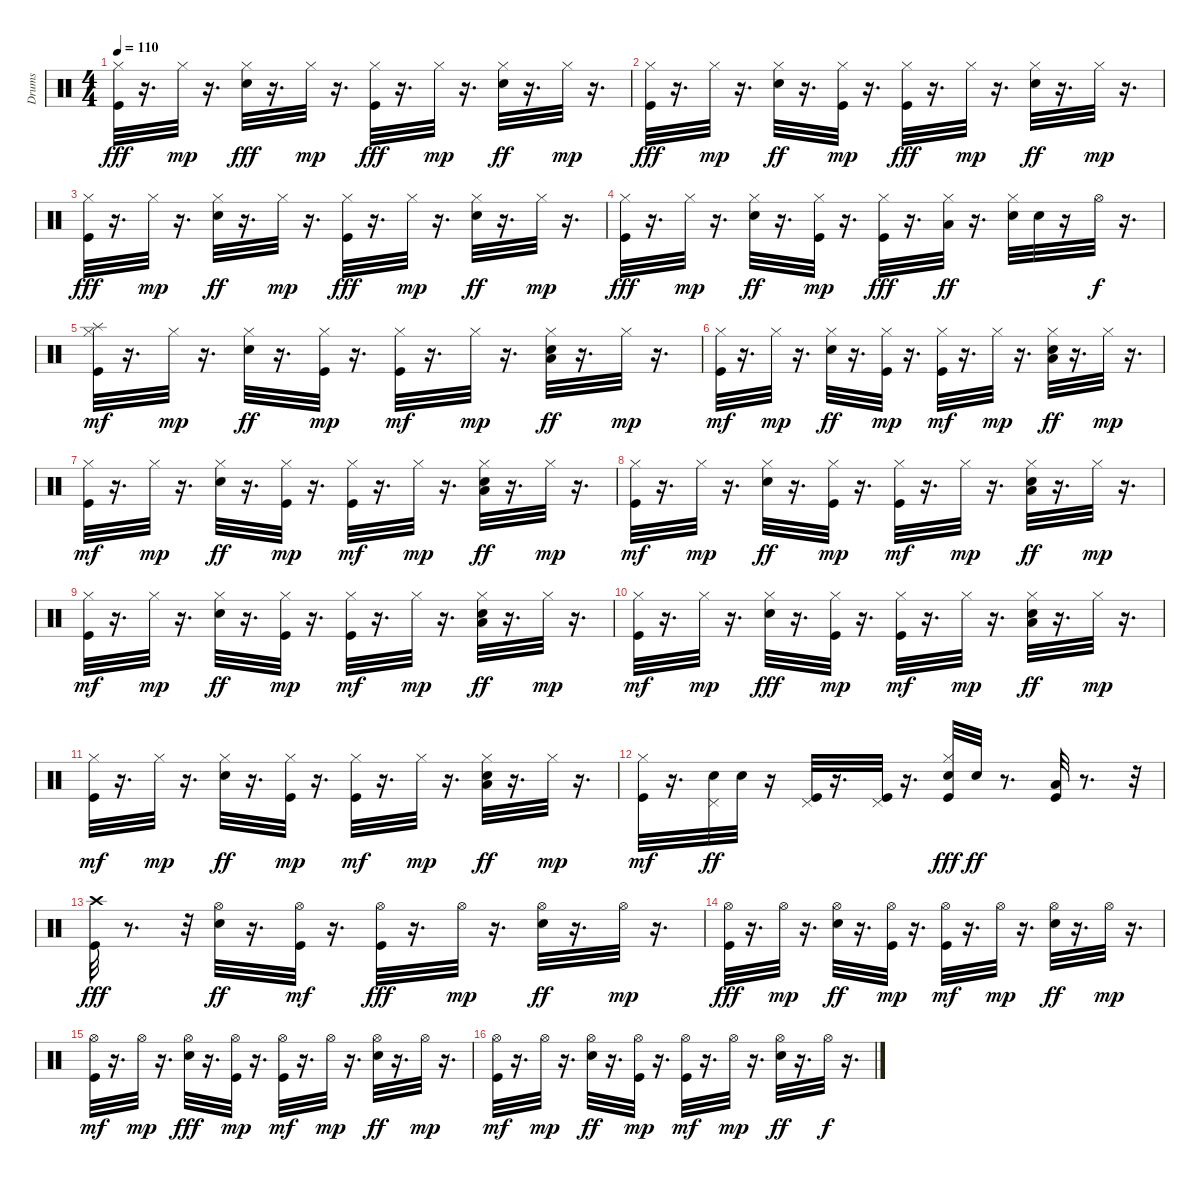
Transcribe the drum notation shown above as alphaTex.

\track ("Drums" "Drums") {instrument percussion}
\staff {score}
\articulation defaults
\ts (4 4)
\tempo 110
\clef neutral
\ks c
("Kick (hit)" "Hi-Hat (closed)").32{dy fff} r.16{d} "Hi-Hat (closed)".32{dy mp} r.16{d} ("Electric Snare (hit)" "Hi-Hat (closed)").32{dy fff} r.16{d} "Hi-Hat (closed)".32{dy mp} r.16{d} ("Kick (hit)" "Hi-Hat (closed)").32{dy fff} r.16{d} "Hi-Hat (closed)".32{dy mp} r.16{d} ("Electric Snare (hit)" "Hi-Hat (closed)").32{dy ff} r.16{d} "Hi-Hat (closed)".32{dy mp} r.16{d} |
("Kick (hit)" "Hi-Hat (closed)").32{dy fff} r.16{d} "Hi-Hat (closed)".32{dy mp} r.16{d} ("Electric Snare (hit)" "Hi-Hat (closed)").32{dy ff} r.16{d} ("Kick (hit)" "Hi-Hat (closed)").32{dy mp} r.16{d} ("Kick (hit)" "Hi-Hat (closed)").32{dy fff} r.16{d} "Hi-Hat (closed)".32{dy mp} r.16{d} ("Electric Snare (hit)" "Hi-Hat (closed)").32{dy ff} r.16{d} "Hi-Hat (closed)".32{dy mp} r.16{d} |
("Kick (hit)" "Hi-Hat (closed)").32{dy fff} r.16{d} "Hi-Hat (closed)".32{dy mp} r.16{d} ("Electric Snare (hit)" "Hi-Hat (closed)").32{dy ff} r.16{d} "Hi-Hat (closed)".32{dy mp} r.16{d} ("Kick (hit)" "Hi-Hat (closed)").32{dy fff} r.16{d} "Hi-Hat (closed)".32{dy mp} r.16{d} ("Electric Snare (hit)" "Hi-Hat (closed)").32{dy ff} r.16{d} "Hi-Hat (closed)".32{dy mp} r.16{d} |
("Kick (hit)" "Hi-Hat (closed)").32{dy fff} r.16{d} "Hi-Hat (closed)".32{dy mp} r.16{d} ("Electric Snare (hit)" "Hi-Hat (closed)").32{dy ff} r.16{d} ("Kick (hit)" "Hi-Hat (closed)").32{dy mp} r.16{d} ("Kick (hit)" "Hi-Hat (closed)").32{dy fff} r.16{d} ("Hi-Hat (closed)" "Low Tom (hit)").32{dy ff} r.16{d} ("Electric Snare (hit)" "Hi-Hat (closed)").32 "Electric Snare (hit)".32 r.16 "Hi-Hat (open)".32{dy f} r.16{d} |
("Kick (hit)" "Hi-Hat (closed)" "Splash (hit)").32{dy mf} r.16{d} "Hi-Hat (closed)".32{dy mp} r.16{d} ("Electric Snare (hit)" "Hi-Hat (closed)").32{dy ff} r.16{d} ("Kick (hit)" "Hi-Hat (closed)").32{dy mp} r.16{d} ("Kick (hit)" "Hi-Hat (closed)").32{dy mf} r.16{d} "Hi-Hat (closed)".32{dy mp} r.16{d} ("Low Floor Tom (hit)" "Electric Snare (hit)" "Hi-Hat (closed)").32{dy ff} r.16{d} "Hi-Hat (closed)".32{dy mp} r.16{d} |
("Kick (hit)" "Hi-Hat (closed)").32{dy mf} r.16{d} "Hi-Hat (closed)".32{dy mp} r.16{d} ("Electric Snare (hit)" "Hi-Hat (closed)").32{dy ff} r.16{d} ("Kick (hit)" "Hi-Hat (closed)").32{dy mp} r.16{d} ("Kick (hit)" "Hi-Hat (closed)").32{dy mf} r.16{d} "Hi-Hat (closed)".32{dy mp} r.16{d} ("Electric Snare (hit)" "Hi-Hat (closed)" "Low Floor Tom (hit)").32{dy ff} r.16{d} "Hi-Hat (closed)".32{dy mp} r.16{d} |
("Kick (hit)" "Hi-Hat (closed)").32{dy mf} r.16{d} "Hi-Hat (closed)".32{dy mp} r.16{d} ("Electric Snare (hit)" "Hi-Hat (closed)").32{dy ff} r.16{d} ("Kick (hit)" "Hi-Hat (closed)").32{dy mp} r.16{d} ("Kick (hit)" "Hi-Hat (closed)").32{dy mf} r.16{d} "Hi-Hat (closed)".32{dy mp} r.16{d} ("Low Floor Tom (hit)" "Electric Snare (hit)" "Hi-Hat (closed)").32{dy ff} r.16{d} "Hi-Hat (closed)".32{dy mp} r.16{d} |
("Kick (hit)" "Hi-Hat (closed)").32{dy mf} r.16{d} "Hi-Hat (closed)".32{dy mp} r.16{d} ("Electric Snare (hit)" "Hi-Hat (closed)").32{dy ff} r.16{d} ("Kick (hit)" "Hi-Hat (closed)").32{dy mp} r.16{d} ("Kick (hit)" "Hi-Hat (closed)").32{dy mf} r.16{d} "Hi-Hat (closed)".32{dy mp} r.16{d} ("Electric Snare (hit)" "Hi-Hat (closed)" "Low Floor Tom (hit)").32{dy ff} r.16{d} "Hi-Hat (closed)".32{dy mp} r.16{d} |
("Kick (hit)" "Hi-Hat (closed)").32{dy mf} r.16{d} "Hi-Hat (closed)".32{dy mp} r.16{d} ("Electric Snare (hit)" "Hi-Hat (closed)").32{dy ff} r.16{d} ("Kick (hit)" "Hi-Hat (closed)").32{dy mp} r.16{d} ("Kick (hit)" "Hi-Hat (closed)").32{dy mf} r.16{d} "Hi-Hat (closed)".32{dy mp} r.16{d} ("Electric Snare (hit)" "Hi-Hat (closed)" "Low Floor Tom (hit)").32{dy ff} r.16{d} "Hi-Hat (closed)".32{dy mp} r.16{d} |
("Kick (hit)" "Hi-Hat (closed)").32{dy mf} r.16{d} "Hi-Hat (closed)".32{dy mp} r.16{d} ("Electric Snare (hit)" "Hi-Hat (closed)").32{dy fff} r.16{d} ("Kick (hit)" "Hi-Hat (closed)").32{dy mp} r.16{d} ("Kick (hit)" "Hi-Hat (closed)").32{dy mf} r.16{d} "Hi-Hat (closed)".32{dy mp} r.16{d} ("Electric Snare (hit)" "Hi-Hat (closed)" "Low Floor Tom (hit)").32{dy ff} r.16{d} "Hi-Hat (closed)".32{dy mp} r.16{d} |
("Kick (hit)" "Hi-Hat (closed)").32{dy mf} r.16{d} "Hi-Hat (closed)".32{dy mp} r.16{d} ("Electric Snare (hit)" "Hi-Hat (closed)").32{dy ff} r.16{d} ("Kick (hit)" "Hi-Hat (closed)").32{dy mp} r.16{d} ("Kick (hit)" "Hi-Hat (closed)").32{dy mf} r.16{d} "Hi-Hat (closed)".32{dy mp} r.16{d} ("Electric Snare (hit)" "Hi-Hat (closed)" "Low Floor Tom (hit)").32{dy ff} r.16{d} "Hi-Hat (closed)".32{dy mp} r.16{d} |
("Kick (hit)" "Hi-Hat (closed)").32{dy mf} r.16{d} ("Pedal Hi-Hat (hit)" "Electric Snare (hit)").32{dy ff} "Electric Snare (hit)".32 r.16 ("Pedal Hi-Hat (hit)" "Kick (hit)").32 r.16{d} ("Kick (hit)" "Pedal Hi-Hat (hit)").32 r.16{d} ("Kick (hit)" "Hi-Hat (closed)" "Electric Snare (hit)").32{dy fff} "Electric Snare (hit)".32{dy ff} r.8{d} ("Low Floor Tom (hit)" "Kick (hit)").32 r.8{d} r.32 |
("Kick (hit)" "Crash high (hit)").32{dy fff} r.8{d} r.32 ("Electric Snare (hit)" "Hi-Hat (open)").32{dy ff} r.16{d} ("Kick (hit)" "Hi-Hat (open)").32{dy mf} r.16{d} ("Kick (hit)" "Hi-Hat (open)").32{dy fff} r.16{d} "Hi-Hat (open)".32{dy mp} r.16{d} ("Electric Snare (hit)" "Hi-Hat (open)").32{dy ff} r.16{d} "Hi-Hat (open)".32{dy mp} r.16{d} |
("Kick (hit)" "Hi-Hat (open)").32{dy fff} r.16{d} "Hi-Hat (open)".32{dy mp} r.16{d} ("Electric Snare (hit)" "Hi-Hat (open)").32{dy ff} r.16{d} ("Kick (hit)" "Hi-Hat (open)").32{dy mp} r.16{d} ("Kick (hit)" "Hi-Hat (open)").32{dy mf} r.16{d} "Hi-Hat (open)".32{dy mp} r.16{d} ("Electric Snare (hit)" "Hi-Hat (open)").32{dy ff} r.16{d} "Hi-Hat (open)".32{dy mp} r.16{d} |
("Kick (hit)" "Hi-Hat (open)").32{dy mf} r.16{d} "Hi-Hat (open)".32{dy mp} r.16{d} ("Electric Snare (hit)" "Hi-Hat (open)").32{dy fff} r.16{d} ("Kick (hit)" "Hi-Hat (open)").32{dy mp} r.16{d} ("Kick (hit)" "Hi-Hat (open)").32{dy mf} r.16{d} "Hi-Hat (open)".32{dy mp} r.16{d} ("Electric Snare (hit)" "Hi-Hat (open)").32{dy ff} r.16{d} "Hi-Hat (open)".32{dy mp} r.16{d} |
("Kick (hit)" "Hi-Hat (open)").32{dy mf} r.16{d} "Hi-Hat (open)".32{dy mp} r.16{d} ("Electric Snare (hit)" "Hi-Hat (open)").32{dy ff} r.16{d} ("Kick (hit)" "Hi-Hat (open)").32{dy mp} r.16{d} ("Kick (hit)" "Hi-Hat (open)").32{dy mf} r.16{d} "Hi-Hat (open)".32{dy mp} r.16{d} ("Electric Snare (hit)" "Hi-Hat (open)").32{dy ff} r.16{d} "Hi-Hat (open)".32{dy f} r.16{d}
